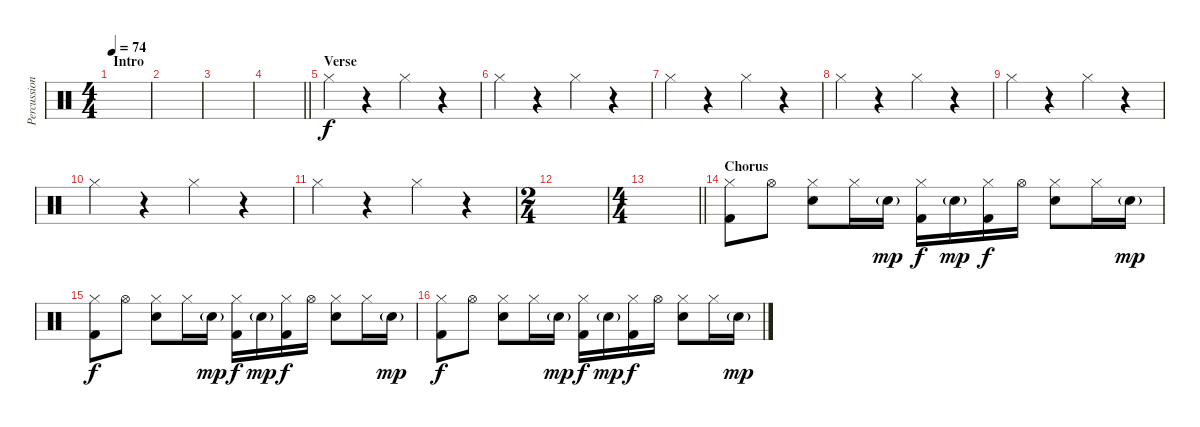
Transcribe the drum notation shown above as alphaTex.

\track ("Percussion" "Percussion") {instrument percussion}
\staff {score}
\articulation defaults
\ts (4 4)
\section ("" "Intro")
\tempo 74
\clef neutral
\ks c
|
|
|
\barLineRight lightlight
|
\section ("" "Verse")
"Hi-Hat (closed)".4 r.4 "Hi-Hat (closed)".4 r.4 |
"Hi-Hat (closed)".4 r.4 "Hi-Hat (closed)".4 r.4 |
"Hi-Hat (closed)".4 r.4 "Hi-Hat (closed)".4 r.4 |
"Hi-Hat (closed)".4 r.4 "Hi-Hat (closed)".4 r.4 |
"Hi-Hat (closed)".4 r.4 "Hi-Hat (closed)".4 r.4 |
"Hi-Hat (closed)".4 r.4 "Hi-Hat (closed)".4 r.4 |
"Hi-Hat (closed)".4 r.4 "Hi-Hat (closed)".4 r.4 |
\ts (2 4)
|
\ts (4 4)
\barLineRight lightlight
|
\section ("" "Chorus")
("Kick (hit) 2" "Hi-Hat (closed)").8 "Hi-Hat (open)".8 ("Hi-Hat (closed)" "Snare (hit) 2").8 "Hi-Hat (closed)".16 "Snare (hit) 2"{g}.16{dy mp} ("Kick (hit) 2" "Hi-Hat (closed)").16{dy f} "Snare (hit) 2"{g}.16{dy mp} ("Kick (hit) 2" "Hi-Hat (closed)").16{dy f} "Hi-Hat (open)".16 ("Hi-Hat (closed)" "Snare (hit) 2").8 "Hi-Hat (closed)".16 "Snare (hit) 2"{g}.16{dy mp} |
("Kick (hit) 2" "Hi-Hat (closed)").8{dy f} "Hi-Hat (open)".8 ("Hi-Hat (closed)" "Snare (hit) 2").8 "Hi-Hat (closed)".16 "Snare (hit) 2"{g}.16{dy mp} ("Kick (hit) 2" "Hi-Hat (closed)").16{dy f} "Snare (hit) 2"{g}.16{dy mp} ("Kick (hit) 2" "Hi-Hat (closed)").16{dy f} "Hi-Hat (open)".16 ("Hi-Hat (closed)" "Snare (hit) 2").8 "Hi-Hat (closed)".16 "Snare (hit) 2"{g}.16{dy mp} |
("Kick (hit) 2" "Hi-Hat (closed)").8{dy f} "Hi-Hat (open)".8 ("Hi-Hat (closed)" "Snare (hit) 2").8 "Hi-Hat (closed)".16 "Snare (hit) 2"{g}.16{dy mp} ("Kick (hit) 2" "Hi-Hat (closed)").16{dy f} "Snare (hit) 2"{g}.16{dy mp} ("Kick (hit) 2" "Hi-Hat (closed)").16{dy f} "Hi-Hat (open)".16 ("Hi-Hat (closed)" "Snare (hit) 2").8 "Hi-Hat (closed)".16 "Snare (hit) 2"{g}.16{dy mp}
